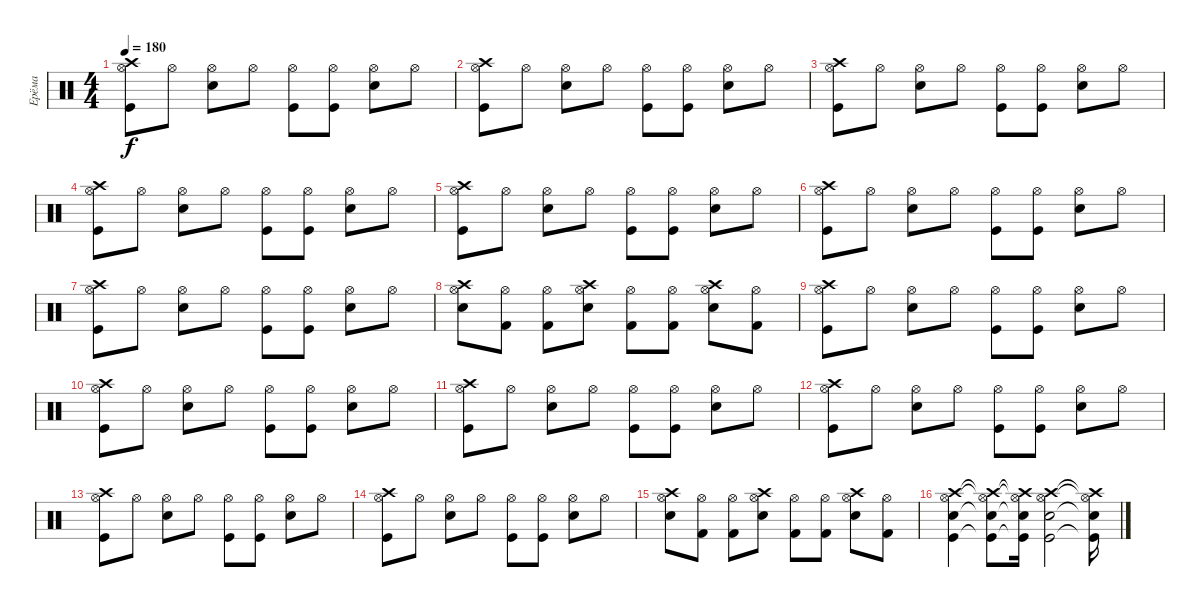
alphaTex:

\track ("Ерёма" "Ерёма") {instrument percussion}
\staff {score}
\articulation defaults
\ts (4 4)
\tempo 180
\clef neutral
\ks c
("Hi-Hat (open)" "Kick (hit)" "Crash high (hit)").8{dy f} "Hi-Hat (open)".8 ("Hi-Hat (open)" "Electric Snare (hit)").8 "Hi-Hat (open)".8 ("Hi-Hat (open)" "Kick (hit)").8 ("Hi-Hat (open)" "Kick (hit)").8 ("Hi-Hat (open)" "Electric Snare (hit)").8 "Hi-Hat (open)".8 |
("Hi-Hat (open)" "Kick (hit)" "Crash high (hit)").8 "Hi-Hat (open)".8 ("Hi-Hat (open)" "Electric Snare (hit)").8 "Hi-Hat (open)".8 ("Hi-Hat (open)" "Kick (hit)").8 ("Hi-Hat (open)" "Kick (hit)").8 ("Hi-Hat (open)" "Electric Snare (hit)").8 "Hi-Hat (open)".8 |
("Hi-Hat (open)" "Kick (hit)" "Crash high (hit)").8 "Hi-Hat (open)".8 ("Hi-Hat (open)" "Electric Snare (hit)").8 "Hi-Hat (open)".8 ("Hi-Hat (open)" "Kick (hit)").8 ("Hi-Hat (open)" "Kick (hit)").8 ("Hi-Hat (open)" "Electric Snare (hit)").8 "Hi-Hat (open)".8 |
("Hi-Hat (open)" "Kick (hit)" "Crash high (hit)").8 "Hi-Hat (open)".8 ("Hi-Hat (open)" "Electric Snare (hit)").8 "Hi-Hat (open)".8 ("Hi-Hat (open)" "Kick (hit)").8 ("Hi-Hat (open)" "Kick (hit)").8 ("Hi-Hat (open)" "Electric Snare (hit)").8 "Hi-Hat (open)".8 |
("Hi-Hat (open)" "Kick (hit)" "Crash high (hit)").8 "Hi-Hat (open)".8 ("Hi-Hat (open)" "Electric Snare (hit)").8 "Hi-Hat (open)".8 ("Hi-Hat (open)" "Kick (hit)").8 ("Hi-Hat (open)" "Kick (hit)").8 ("Hi-Hat (open)" "Electric Snare (hit)").8 "Hi-Hat (open)".8 |
("Hi-Hat (open)" "Kick (hit)" "Crash high (hit)").8 "Hi-Hat (open)".8 ("Hi-Hat (open)" "Electric Snare (hit)").8 "Hi-Hat (open)".8 ("Hi-Hat (open)" "Kick (hit)").8 ("Hi-Hat (open)" "Kick (hit)").8 ("Hi-Hat (open)" "Electric Snare (hit)").8 "Hi-Hat (open)".8 |
("Hi-Hat (open)" "Kick (hit)" "Crash high (hit)").8 "Hi-Hat (open)".8 ("Hi-Hat (open)" "Electric Snare (hit)").8 "Hi-Hat (open)".8 ("Hi-Hat (open)" "Kick (hit)").8 ("Hi-Hat (open)" "Kick (hit)").8 ("Hi-Hat (open)" "Electric Snare (hit)").8 "Hi-Hat (open)".8 |
("Hi-Hat (open)" "Electric Snare (hit)" "Crash high (hit)").8 ("Hi-Hat (open)" "Kick (hit) 2").8 ("Hi-Hat (open)" "Kick (hit) 2").8 ("Hi-Hat (open)" "Electric Snare (hit)" "Crash high (hit)").8 ("Hi-Hat (open)" "Kick (hit) 2").8 ("Hi-Hat (open)" "Kick (hit) 2").8 ("Hi-Hat (open)" "Electric Snare (hit)" "Crash high (hit)").8 ("Hi-Hat (open)" "Kick (hit) 2").8 |
("Hi-Hat (open)" "Kick (hit)" "Crash high (hit)").8 "Hi-Hat (open)".8 ("Hi-Hat (open)" "Electric Snare (hit)").8 "Hi-Hat (open)".8 ("Hi-Hat (open)" "Kick (hit)").8 ("Hi-Hat (open)" "Kick (hit)").8 ("Hi-Hat (open)" "Electric Snare (hit)").8 "Hi-Hat (open)".8 |
("Hi-Hat (open)" "Kick (hit)" "Crash high (hit)").8 "Hi-Hat (open)".8 ("Hi-Hat (open)" "Electric Snare (hit)").8 "Hi-Hat (open)".8 ("Hi-Hat (open)" "Kick (hit)").8 ("Hi-Hat (open)" "Kick (hit)").8 ("Hi-Hat (open)" "Electric Snare (hit)").8 "Hi-Hat (open)".8 |
("Hi-Hat (open)" "Kick (hit)" "Crash high (hit)").8 "Hi-Hat (open)".8 ("Hi-Hat (open)" "Electric Snare (hit)").8 "Hi-Hat (open)".8 ("Hi-Hat (open)" "Kick (hit)").8 ("Hi-Hat (open)" "Kick (hit)").8 ("Hi-Hat (open)" "Electric Snare (hit)").8 "Hi-Hat (open)".8 |
("Hi-Hat (open)" "Kick (hit)" "Crash high (hit)").8 "Hi-Hat (open)".8 ("Hi-Hat (open)" "Electric Snare (hit)").8 "Hi-Hat (open)".8 ("Hi-Hat (open)" "Kick (hit)").8 ("Hi-Hat (open)" "Kick (hit)").8 ("Hi-Hat (open)" "Electric Snare (hit)").8 "Hi-Hat (open)".8 |
("Hi-Hat (open)" "Kick (hit)" "Crash high (hit)").8 "Hi-Hat (open)".8 ("Hi-Hat (open)" "Electric Snare (hit)").8 "Hi-Hat (open)".8 ("Hi-Hat (open)" "Kick (hit)").8 ("Hi-Hat (open)" "Kick (hit)").8 ("Hi-Hat (open)" "Electric Snare (hit)").8 "Hi-Hat (open)".8 |
("Hi-Hat (open)" "Kick (hit)" "Crash high (hit)").8 "Hi-Hat (open)".8 ("Hi-Hat (open)" "Electric Snare (hit)").8 "Hi-Hat (open)".8 ("Hi-Hat (open)" "Kick (hit)").8 ("Hi-Hat (open)" "Kick (hit)").8 ("Hi-Hat (open)" "Electric Snare (hit)").8 "Hi-Hat (open)".8 |
("Hi-Hat (open)" "Electric Snare (hit)" "Crash high (hit)").8 ("Hi-Hat (open)" "Kick (hit) 2").8 ("Hi-Hat (open)" "Kick (hit) 2").8 ("Hi-Hat (open)" "Electric Snare (hit)" "Crash high (hit)").8 ("Hi-Hat (open)" "Kick (hit) 2").8 ("Hi-Hat (open)" "Kick (hit) 2").8 ("Hi-Hat (open)" "Electric Snare (hit)" "Crash high (hit)").8 ("Hi-Hat (open)" "Kick (hit) 2").8 |
("Hi-Hat (open)" "Kick (hit)" "Crash high (hit)" "Electric Snare (hit)").4 ("Hi-Hat (open)"{t} "Kick (hit)"{t} "Crash high (hit)"{t} "Electric Snare (hit)"{t}).8 ("Hi-Hat (open)"{t} "Kick (hit)"{t} "Crash high (hit)"{t} "Electric Snare (hit)"{t}).16 ("Hi-Hat (open)" "Kick (hit)" "Crash high (hit)" "Electric Snare (hit)").2 ("Hi-Hat (open)"{t} "Kick (hit)"{t} "Crash high (hit)"{t} "Electric Snare (hit)"{t}).16
